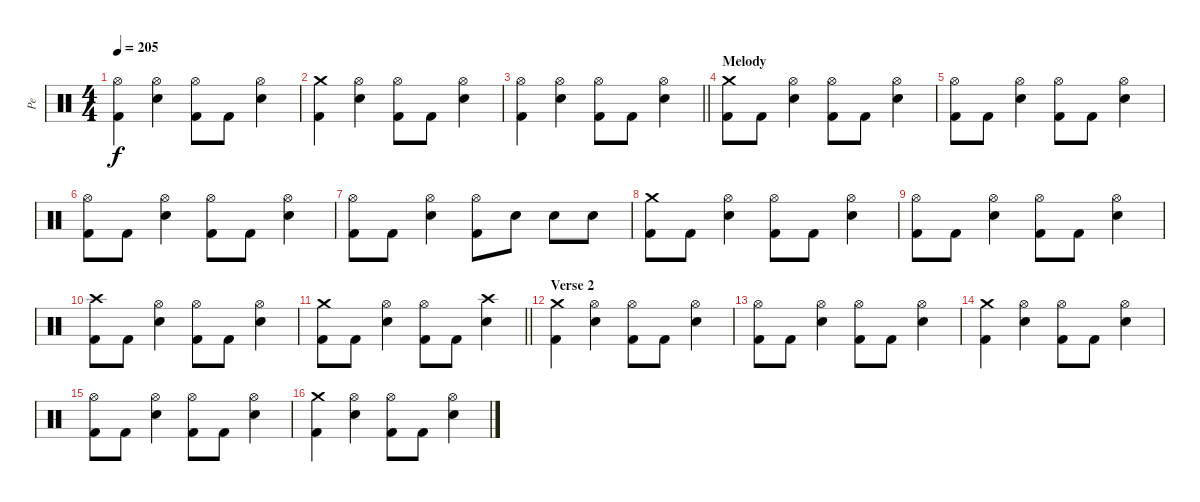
\track ("Pe" "Pe") {instrument percussion}
\staff {score}
\articulation defaults
\ts (4 4)
\tempo 205
\clef neutral
\ks c
("Hi-Hat (open)" "Kick (hit) 2").4{dy f} ("Hi-Hat (open)" "Electric Snare (hit)").4 ("Hi-Hat (open)" "Kick (hit) 2").8 "Kick (hit) 2".8 ("Hi-Hat (open)" "Electric Snare (hit)").4 |
("Crash medium (hit)" "Kick (hit) 2").4 ("Hi-Hat (open)" "Electric Snare (hit)").4 ("Hi-Hat (open)" "Kick (hit) 2").8 "Kick (hit) 2".8 ("Hi-Hat (open)" "Electric Snare (hit)").4 |
\barLineRight lightlight
("Hi-Hat (open)" "Kick (hit) 2").4 ("Hi-Hat (open)" "Electric Snare (hit)").4 ("Hi-Hat (open)" "Kick (hit) 2").8 "Kick (hit) 2".8 ("Hi-Hat (open)" "Electric Snare (hit)").4 |
\section ("" "Melody")
("Crash medium (hit)" "Kick (hit) 2").8 "Kick (hit) 2".8 ("Hi-Hat (open)" "Electric Snare (hit)").4 ("Hi-Hat (open)" "Kick (hit) 2").8 "Kick (hit) 2".8 ("Hi-Hat (open)" "Electric Snare (hit)").4 |
("Hi-Hat (open)" "Kick (hit) 2").8 "Kick (hit) 2".8 ("Hi-Hat (open)" "Electric Snare (hit)").4 ("Hi-Hat (open)" "Kick (hit) 2").8 "Kick (hit) 2".8 ("Hi-Hat (open)" "Electric Snare (hit)").4 |
("Hi-Hat (open)" "Kick (hit) 2").8 "Kick (hit) 2".8 ("Hi-Hat (open)" "Electric Snare (hit)").4 ("Hi-Hat (open)" "Kick (hit) 2").8 "Kick (hit) 2".8 ("Hi-Hat (open)" "Electric Snare (hit)").4 |
("Hi-Hat (open)" "Kick (hit) 2").8 "Kick (hit) 2".8 ("Hi-Hat (open)" "Electric Snare (hit)").4 ("Hi-Hat (open)" "Kick (hit) 2").8 "Electric Snare (hit)".8 "Electric Snare (hit)".8 "Electric Snare (hit)".8 |
("Crash medium (hit)" "Kick (hit) 2").8 "Kick (hit) 2".8 ("Hi-Hat (open)" "Electric Snare (hit)").4 ("Hi-Hat (open)" "Kick (hit) 2").8 "Kick (hit) 2".8 ("Hi-Hat (open)" "Electric Snare (hit)").4 |
("Hi-Hat (open)" "Kick (hit) 2").8 "Kick (hit) 2".8 ("Hi-Hat (open)" "Electric Snare (hit)").4 ("Hi-Hat (open)" "Kick (hit) 2").8 "Kick (hit) 2".8 ("Hi-Hat (open)" "Electric Snare (hit)").4 |
("Crash high (hit)" "Kick (hit) 2").8 "Kick (hit) 2".8 ("Hi-Hat (open)" "Electric Snare (hit)").4 ("Hi-Hat (open)" "Kick (hit) 2").8 "Kick (hit) 2".8 ("Hi-Hat (open)" "Electric Snare (hit)").4 |
\barLineRight lightlight
("Crash medium (hit)" "Kick (hit) 2").8 "Kick (hit) 2".8 ("Hi-Hat (open)" "Electric Snare (hit)").4 ("Hi-Hat (open)" "Kick (hit) 2").8 "Kick (hit) 2".8 ("Crash high (hit)" "Electric Snare (hit)").4 |
\section ("" "Verse 2")
("Crash medium (hit)" "Kick (hit) 2").4 ("Hi-Hat (open)" "Electric Snare (hit)").4 ("Hi-Hat (open)" "Kick (hit) 2").8 "Kick (hit) 2".8 ("Hi-Hat (open)" "Electric Snare (hit)").4 |
("Hi-Hat (open)" "Kick (hit) 2").8 "Kick (hit) 2".8 ("Hi-Hat (open)" "Electric Snare (hit)").4 ("Hi-Hat (open)" "Kick (hit) 2").8 "Kick (hit) 2".8 ("Hi-Hat (open)" "Electric Snare (hit)").4 |
("Crash medium (hit)" "Kick (hit) 2").4 ("Hi-Hat (open)" "Electric Snare (hit)").4 ("Hi-Hat (open)" "Kick (hit) 2").8 "Kick (hit) 2".8 ("Hi-Hat (open)" "Electric Snare (hit)").4 |
("Hi-Hat (open)" "Kick (hit) 2").8 "Kick (hit) 2".8 ("Hi-Hat (open)" "Electric Snare (hit)").4 ("Hi-Hat (open)" "Kick (hit) 2").8 "Kick (hit) 2".8 ("Hi-Hat (open)" "Electric Snare (hit)").4 |
("Crash medium (hit)" "Kick (hit) 2").4 ("Hi-Hat (open)" "Electric Snare (hit)").4 ("Hi-Hat (open)" "Kick (hit) 2").8 "Kick (hit) 2".8 ("Hi-Hat (open)" "Electric Snare (hit)").4
